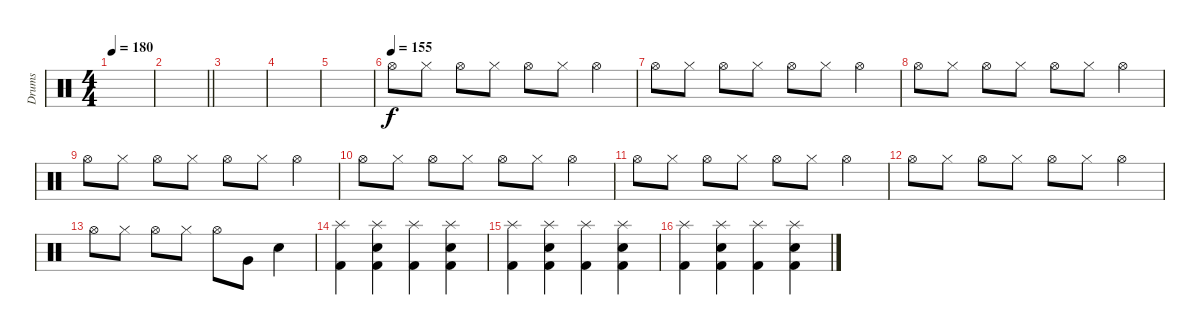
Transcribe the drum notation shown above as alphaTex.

\track ("Drums" "Drums") {instrument percussion}
\staff {score}
\articulation defaults
\ts (4 4)
\tempo 180
\clef neutral
\ks c
|
\barLineRight lightlight
|
|
|
|
\tempo (155)
"Hi-Hat (open)".8{volume 2} "Hi-Hat (closed)".8 "Hi-Hat (open)".8 "Hi-Hat (closed)".8 "Hi-Hat (open)".8 "Hi-Hat (closed)".8 "Hi-Hat (open)".4 |
"Hi-Hat (open)".8 "Hi-Hat (closed)".8 "Hi-Hat (open)".8 "Hi-Hat (closed)".8 "Hi-Hat (open)".8 "Hi-Hat (closed)".8 "Hi-Hat (open)".4 |
"Hi-Hat (open)".8 "Hi-Hat (closed)".8 "Hi-Hat (open)".8 "Hi-Hat (closed)".8 "Hi-Hat (open)".8 "Hi-Hat (closed)".8 "Hi-Hat (open)".4 |
"Hi-Hat (open)".8 "Hi-Hat (closed)".8 "Hi-Hat (open)".8 "Hi-Hat (closed)".8 "Hi-Hat (open)".8 "Hi-Hat (closed)".8 "Hi-Hat (open)".4 |
"Hi-Hat (open)".8 "Hi-Hat (closed)".8 "Hi-Hat (open)".8 "Hi-Hat (closed)".8 "Hi-Hat (open)".8 "Hi-Hat (closed)".8 "Hi-Hat (open)".4 |
"Hi-Hat (open)".8 "Hi-Hat (closed)".8 "Hi-Hat (open)".8 "Hi-Hat (closed)".8 "Hi-Hat (open)".8 "Hi-Hat (closed)".8 "Hi-Hat (open)".4 |
"Hi-Hat (open)".8 "Hi-Hat (closed)".8 "Hi-Hat (open)".8 "Hi-Hat (closed)".8 "Hi-Hat (open)".8 "Hi-Hat (closed)".8 "Hi-Hat (open)".4 |
"Hi-Hat (open)".8 "Hi-Hat (closed)".8 "Hi-Hat (open)".8 "Hi-Hat (closed)".8 "Hi-Hat (open)".8 "Very Low Tom (hit)".8{volume 13} "Electric Snare (hit)".4 |
("Kick (hit) 2" "Splash (hit)").4 ("Kick (hit) 2" "Electric Snare (hit)" "Splash (hit)").4 ("Kick (hit) 2" "Splash (hit)").4 ("Kick (hit) 2" "Electric Snare (hit)" "Splash (hit)").4 |
("Kick (hit) 2" "Splash (hit)").4 ("Kick (hit) 2" "Electric Snare (hit)" "Splash (hit)").4 ("Kick (hit) 2" "Splash (hit)").4 ("Kick (hit) 2" "Electric Snare (hit)" "Splash (hit)").4 |
("Kick (hit) 2" "Splash (hit)").4 ("Kick (hit) 2" "Electric Snare (hit)" "Splash (hit)").4 ("Kick (hit) 2" "Splash (hit)").4 ("Kick (hit) 2" "Electric Snare (hit)" "Splash (hit)").4
